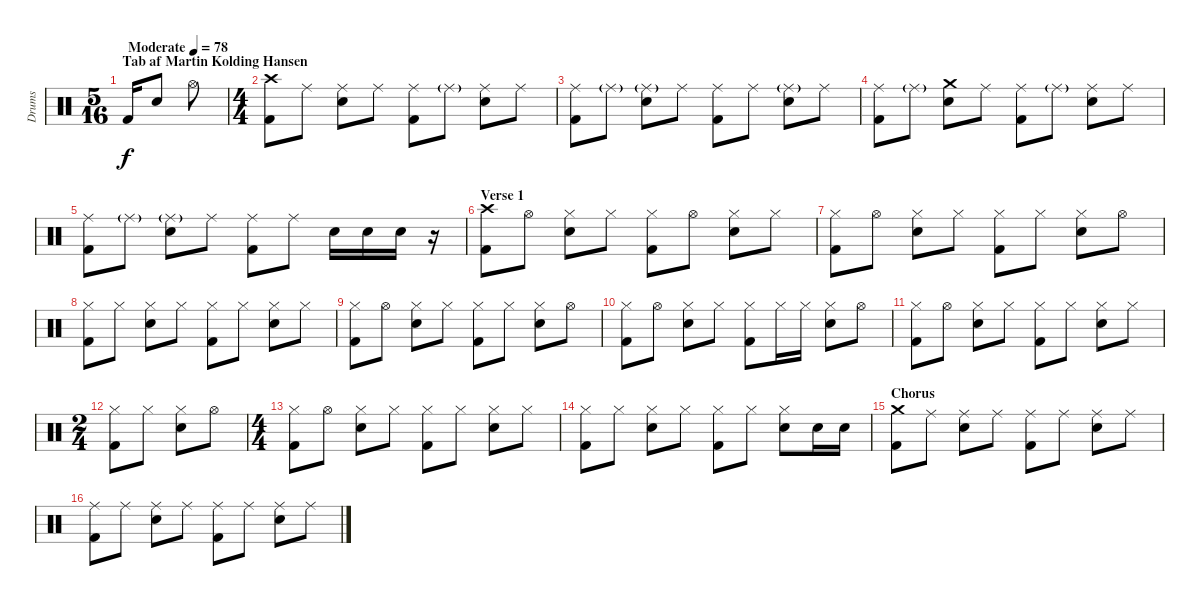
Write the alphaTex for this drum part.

\track ("Drums" "Drums") {instrument percussion}
\staff {score}
\articulation defaults
\ts (5 16)
\section ("" "Tab af Martin Kolding Hansen")
\tempo (78 "Moderate")
\clef neutral
\ks c "Kick (hit) 2".16{dy f} "Snare (hit) 2".8 "Hi-Hat (open)".8
|
\ts (4 4)
("Crash high (hit)" "Kick (hit) 2").8 "Ride (middle)".8 ("Ride (middle)" "Snare (hit) 2").8 "Ride (middle)".8 ("Ride (middle)" "Kick (hit) 2").8 "Ride (middle)"{g}.8 ("Ride (middle)" "Snare (hit) 2").8 "Ride (middle)".8 |
("Ride (middle)" "Kick (hit) 2").8 "Ride (middle)"{g}.8 ("Ride (middle)"{g} "Snare (hit) 2").8 "Ride (middle)".8 ("Ride (middle)" "Kick (hit) 2").8 "Ride (middle)".8 ("Ride (middle)"{g} "Snare (hit) 2").8 "Ride (middle)".8 |
("Ride (middle)" "Kick (hit) 2").8 "Ride (middle)"{g}.8 ("Crash medium (hit)" "Snare (hit) 2").8 "Ride (middle)".8 ("Ride (middle)" "Kick (hit) 2").8 "Ride (middle)"{g}.8 ("Ride (middle)" "Snare (hit) 2").8 "Ride (middle)".8 |
("Ride (middle)" "Kick (hit) 2").8 "Ride (middle)"{g}.8 ("Ride (middle)"{g} "Snare (hit) 2").8 "Ride (middle)".8 ("Ride (middle)" "Kick (hit) 2").8 "Ride (middle)".8 "Snare (hit) 2".16 "Snare (hit) 2".16 "Snare (hit) 2".16 r.16 |
\section ("" "Verse 1")
("Crash high (hit)" "Kick (hit) 2").8 "Hi-Hat (open)".8 ("Hi-Hat (closed)" "Snare (hit) 2").8 "Hi-Hat (closed)".8 ("Hi-Hat (closed)" "Kick (hit) 2").8 "Hi-Hat (open)".8 ("Hi-Hat (closed)" "Snare (hit) 2").8 "Hi-Hat (closed)".8 |
("Hi-Hat (closed)" "Kick (hit) 2").8 "Hi-Hat (open)".8 ("Hi-Hat (closed)" "Snare (hit) 2").8 "Hi-Hat (closed)".8 ("Hi-Hat (closed)" "Kick (hit) 2").8 "Hi-Hat (closed)".8 ("Hi-Hat (closed)" "Snare (hit) 2").8 "Hi-Hat (open)".8 |
("Hi-Hat (closed)" "Kick (hit) 2").8 "Hi-Hat (closed)".8 ("Hi-Hat (closed)" "Snare (hit) 2").8 "Hi-Hat (closed)".8 ("Hi-Hat (closed)" "Kick (hit) 2").8 "Hi-Hat (closed)".8 ("Hi-Hat (closed)" "Snare (hit) 2").8 "Hi-Hat (closed)".8 |
("Hi-Hat (closed)" "Kick (hit) 2").8 "Hi-Hat (open)".8 ("Hi-Hat (closed)" "Snare (hit) 2").8 "Hi-Hat (closed)".8 ("Hi-Hat (closed)" "Kick (hit) 2").8 "Hi-Hat (closed)".8 ("Hi-Hat (closed)" "Snare (hit) 2").8 "Hi-Hat (open)".8 |
("Hi-Hat (closed)" "Kick (hit) 2").8 "Hi-Hat (open)".8 ("Hi-Hat (closed)" "Snare (hit) 2").8 "Hi-Hat (closed)".8 ("Hi-Hat (closed)" "Kick (hit) 2").8 "Hi-Hat (closed)".16 "Hi-Hat (closed)".16 ("Hi-Hat (closed)" "Snare (hit) 2").8 "Hi-Hat (open)".8 |
("Hi-Hat (closed)" "Kick (hit) 2").8 "Hi-Hat (open)".8 ("Hi-Hat (closed)" "Snare (hit) 2").8 "Hi-Hat (closed)".8 ("Hi-Hat (closed)" "Kick (hit) 2").8 "Hi-Hat (closed)".8 ("Hi-Hat (closed)" "Snare (hit) 2").8 "Hi-Hat (closed)".8 |
\ts (2 4)
("Hi-Hat (closed)" "Kick (hit) 2").8 "Hi-Hat (closed)".8 ("Hi-Hat (closed)" "Snare (hit) 2").8 "Hi-Hat (open)".8 |
\ts (4 4)
("Hi-Hat (closed)" "Kick (hit) 2").8 "Hi-Hat (open)".8 ("Hi-Hat (closed)" "Snare (hit) 2").8 "Hi-Hat (closed)".8 ("Hi-Hat (closed)" "Kick (hit) 2").8 "Hi-Hat (closed)".8 ("Hi-Hat (closed)" "Snare (hit) 2").8 "Hi-Hat (closed)".8 |
("Hi-Hat (closed)" "Kick (hit) 2").8 "Hi-Hat (closed)".8 ("Hi-Hat (closed)" "Snare (hit) 2").8 "Hi-Hat (closed)".8 ("Hi-Hat (closed)" "Kick (hit) 2").8 "Hi-Hat (closed)".8 ("Hi-Hat (closed)" "Snare (hit) 2").8 "Snare (hit) 2".16 "Snare (hit) 2".16 |
\section ("" "Chorus")
("Crash medium (hit)" "Kick (hit) 2").8 "Ride (middle)".8 ("Ride (middle)" "Snare (hit) 2").8 "Ride (middle)".8 ("Ride (middle)" "Kick (hit) 2").8 "Ride (middle)".8 ("Ride (middle)" "Snare (hit) 2").8 "Ride (middle)".8 |
("Ride (middle)" "Kick (hit) 2").8 "Ride (middle)".8 ("Ride (middle)" "Snare (hit) 2").8 "Ride (middle)".8 ("Ride (middle)" "Kick (hit) 2").8 "Ride (middle)".8 ("Ride (middle)" "Snare (hit) 2").8 "Ride (middle)".8
